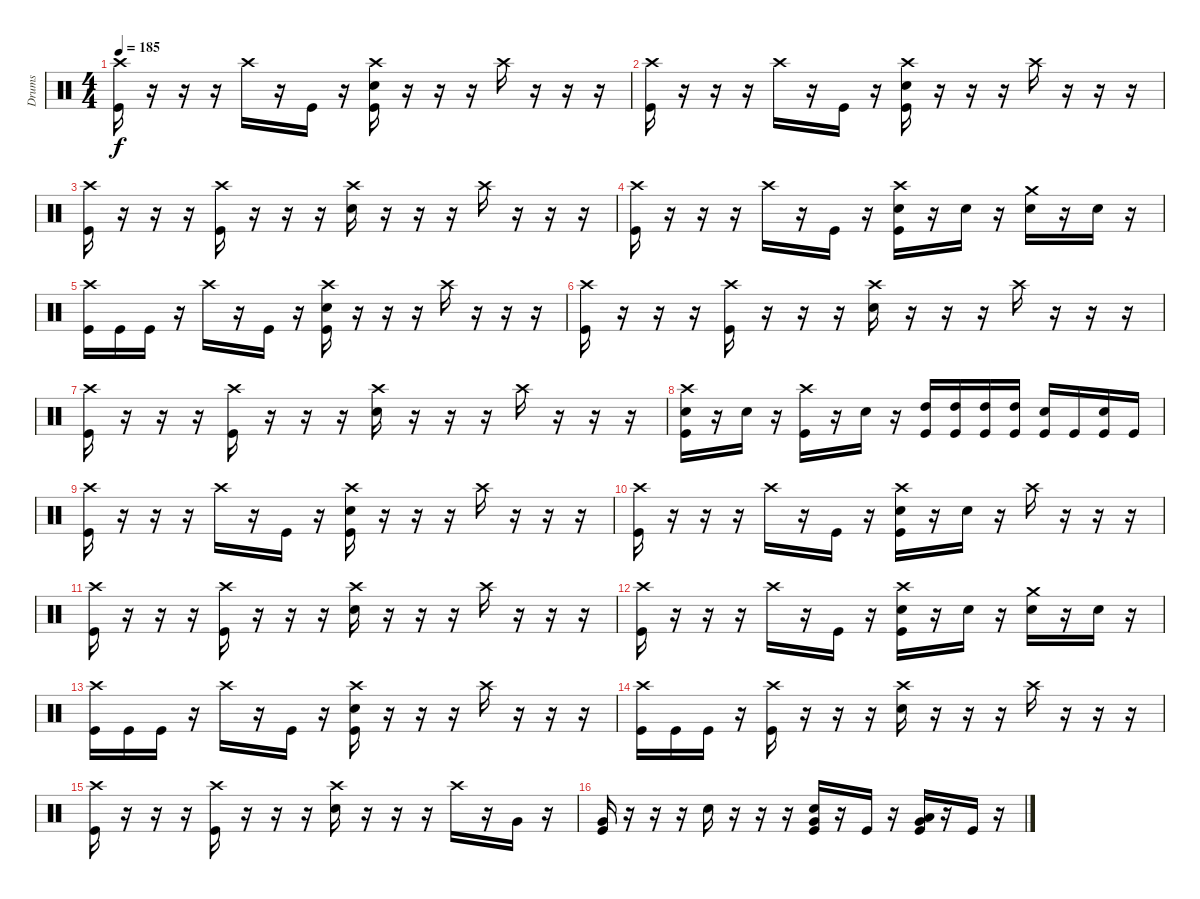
\track ("Drums" "Drums") {instrument percussion}
\staff {score}
\articulation defaults
\ts (4 4)
\tempo 185
\clef neutral
\ks c
("Crash high (hit)" "Kick (hit)").16{dy f} r.16 r.16 r.16 "Crash high (hit)".16 r.16 "Kick (hit)".16 r.16 ("Crash high (hit)" "Snare (hit) 2" "Kick (hit)").16 r.16 r.16 r.16 "Crash high (hit)".16 r.16 r.16 r.16 |
("Crash high (hit)" "Kick (hit)").16 r.16 r.16 r.16 "Crash high (hit)".16 r.16 "Kick (hit)".16 r.16 ("Crash high (hit)" "Snare (hit) 2" "Kick (hit)").16 r.16 r.16 r.16 "Crash high (hit)".16 r.16 r.16 r.16 |
("Crash high (hit)" "Kick (hit)").16 r.16 r.16 r.16 ("Crash high (hit)" "Kick (hit)").16 r.16 r.16 r.16 ("Crash high (hit)" "Snare (hit) 2").16 r.16 r.16 r.16 "Crash high (hit)".16 r.16 r.16 r.16 |
("Crash high (hit)" "Kick (hit)").16 r.16 r.16 r.16 "Crash high (hit)".16 r.16 "Kick (hit)".16 r.16 ("Crash high (hit)" "Snare (hit) 2" "Kick (hit)").16 r.16 "Snare (hit) 2".16 r.16 ("Crash medium (hit)" "Snare (hit) 2").16 r.16 "Snare (hit) 2".16 r.16 |
("Crash high (hit)" "Kick (hit)").16 "Kick (hit)".16 "Kick (hit)".16 r.16 "Crash high (hit)".16 r.16 "Kick (hit)".16 r.16 ("Crash high (hit)" "Snare (hit) 2" "Kick (hit)").16 r.16 r.16 r.16 "Crash high (hit)".16 r.16 r.16 r.16 |
("Crash high (hit)" "Kick (hit)").16 r.16 r.16 r.16 ("Crash high (hit)" "Kick (hit)").16 r.16 r.16 r.16 ("Crash high (hit)" "Snare (hit) 2").16 r.16 r.16 r.16 "Crash high (hit)".16 r.16 r.16 r.16 |
("Crash high (hit)" "Kick (hit)").16 r.16 r.16 r.16 ("Crash high (hit)" "Kick (hit)").16 r.16 r.16 r.16 ("Crash high (hit)" "Snare (hit) 2").16 r.16 r.16 r.16 "Crash high (hit)".16 r.16 r.16 r.16 |
("Crash high (hit)" "Snare (hit) 2" "Kick (hit)").16 r.16 "Snare (hit) 2".16 r.16 ("Crash high (hit)" "Kick (hit)").16 r.16 "Snare (hit) 2".16 r.16 ("High Tom (hit)" "Kick (hit)").16 ("High Tom (hit)" "Kick (hit)").16 ("High Tom (hit)" "Kick (hit)").16 ("High Tom (hit)" "Kick (hit)").16 ("Snare (hit) 2" "Kick (hit)").16 "Kick (hit)".16 ("Snare (hit) 2" "Kick (hit)").16 "Kick (hit)".16 |
("Crash high (hit)" "Kick (hit)").16{volume 13} r.16 r.16 r.16 "Crash high (hit)".16 r.16 "Kick (hit)".16 r.16 ("Crash high (hit)" "Snare (hit) 2" "Kick (hit)").16 r.16 r.16 r.16 "Crash high (hit)".16 r.16 r.16 r.16 |
("Crash high (hit)" "Kick (hit)").16 r.16 r.16 r.16 "Crash high (hit)".16 r.16 "Kick (hit)".16 r.16 ("Crash high (hit)" "Snare (hit) 2" "Kick (hit)").16 r.16 "Snare (hit) 2".16 r.16 "Crash high (hit)".16 r.16 r.16 r.16 |
("Crash high (hit)" "Kick (hit)").16 r.16 r.16 r.16 ("Crash high (hit)" "Kick (hit)").16 r.16 r.16 r.16 ("Crash high (hit)" "Snare (hit) 2").16 r.16 r.16 r.16 "Crash high (hit)".16 r.16 r.16 r.16 |
("Crash high (hit)" "Kick (hit)").16 r.16 r.16 r.16 "Crash high (hit)".16 r.16 "Kick (hit)".16 r.16 ("Crash high (hit)" "Snare (hit) 2" "Kick (hit)").16 r.16 "Snare (hit) 2".16 r.16 ("Crash medium (hit)" "Snare (hit) 2").16 r.16 "Snare (hit) 2".16 r.16 |
("Crash high (hit)" "Kick (hit)").16{volume 12} "Kick (hit)".16 "Kick (hit)".16 r.16 "Crash high (hit)".16 r.16 "Kick (hit)".16 r.16 ("Crash high (hit)" "Snare (hit) 2" "Kick (hit)").16 r.16 r.16 r.16 "Crash high (hit)".16 r.16 r.16 r.16 |
("Crash high (hit)" "Kick (hit)").16 "Kick (hit)".16 "Kick (hit)".16 r.16 ("Crash high (hit)" "Kick (hit)").16 r.16 r.16 r.16 ("Crash high (hit)" "Snare (hit) 2").16 r.16 r.16 r.16 "Crash high (hit)".16 r.16 r.16 r.16 |
("Crash high (hit)" "Kick (hit)").16 r.16 r.16 r.16 ("Crash high (hit)" "Kick (hit)").16 r.16 r.16 r.16 ("Crash high (hit)" "Snare (hit) 2").16 r.16 r.16 r.16 "Crash high (hit)".16 r.16 "Very Low Tom (hit)".16 r.16 |
("Very Low Tom (hit)" "Kick (hit)").16 r.16 r.16 r.16 "Snare (hit) 2".16 r.16 r.16 r.16 ("Very Low Tom (hit)" "Snare (hit) 2" "Kick (hit)").16 r.16 "Kick (hit)".16 r.16 ("Low Tom (hit)" "Very Low Tom (hit)" "Kick (hit)").16 r.16 "Kick (hit)".16 r.16
